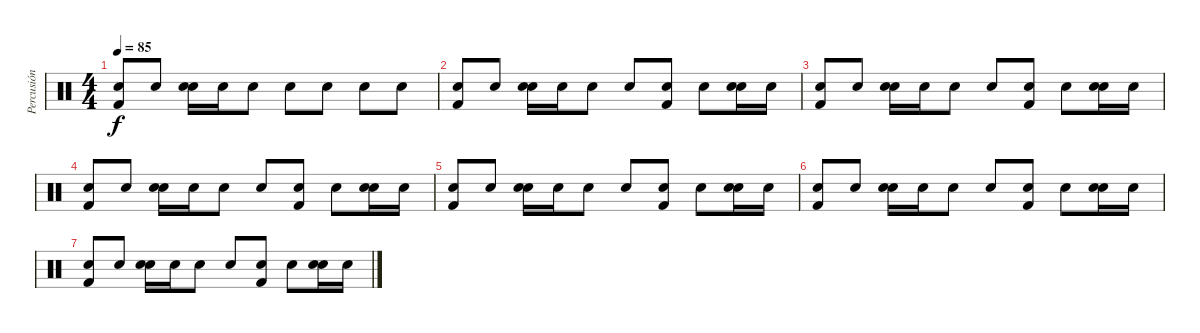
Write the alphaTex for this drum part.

\track ("Percusión" "Percusión") {instrument percussion}
\staff {score}
\articulation defaults
\ts (4 4)
\tempo 85
\clef neutral
\ks c
("Snare (hit)"{x} "Kick (hit) 2").8{dy f} "Snare (hit)"{x}.8 ("Snare (hit)"{x} "Snare (hit) 2").16 "Snare (hit) 2".16 "Snare (hit)"{x}.8 "Snare (hit)"{x}.8 "Snare (hit)"{x}.8 "Snare (hit)"{x}.8 "Snare (hit)"{x}.8 |
("Snare (hit)"{x} "Kick (hit) 2").8 "Snare (hit)"{x}.8 ("Snare (hit)"{x} "Snare (hit) 2").16 "Snare (hit) 2".16 "Snare (hit)"{x}.8 "Snare (hit)"{x}.8 ("Snare (hit)"{x} "Kick (hit) 2").8 "Snare (hit)"{x}.8 ("Snare (hit)"{x} "Snare (hit) 2").16 "Snare (hit) 2".16 |
("Snare (hit)"{x} "Kick (hit) 2").8 "Snare (hit)"{x}.8 ("Snare (hit)"{x} "Snare (hit) 2").16 "Snare (hit) 2".16 "Snare (hit)"{x}.8 "Snare (hit)"{x}.8 ("Snare (hit)"{x} "Kick (hit) 2").8 "Snare (hit)"{x}.8 ("Snare (hit)"{x} "Snare (hit) 2").16 "Snare (hit) 2".16 |
("Snare (hit)"{x} "Kick (hit) 2").8 "Snare (hit)"{x}.8 ("Snare (hit)"{x} "Snare (hit) 2").16 "Snare (hit) 2".16 "Snare (hit)"{x}.8 "Snare (hit)"{x}.8 ("Snare (hit)"{x} "Kick (hit) 2").8 "Snare (hit)"{x}.8 ("Snare (hit)"{x} "Snare (hit) 2").16 "Snare (hit) 2".16 |
("Snare (hit)"{x} "Kick (hit) 2").8 "Snare (hit)"{x}.8 ("Snare (hit)"{x} "Snare (hit) 2").16 "Snare (hit) 2".16 "Snare (hit)"{x}.8 "Snare (hit)"{x}.8 ("Snare (hit)"{x} "Kick (hit) 2").8 "Snare (hit)"{x}.8 ("Snare (hit)"{x} "Snare (hit) 2").16 "Snare (hit) 2".16 |
("Snare (hit)"{x} "Kick (hit) 2").8 "Snare (hit)"{x}.8 ("Snare (hit)"{x} "Snare (hit) 2").16 "Snare (hit) 2".16 "Snare (hit)"{x}.8 "Snare (hit)"{x}.8 ("Snare (hit)"{x} "Kick (hit) 2").8 "Snare (hit)"{x}.8 ("Snare (hit)"{x} "Snare (hit) 2").16 "Snare (hit) 2".16 |
("Snare (hit)"{x} "Kick (hit) 2").8 "Snare (hit)"{x}.8 ("Snare (hit)"{x} "Snare (hit) 2").16 "Snare (hit) 2".16 "Snare (hit)"{x}.8 "Snare (hit)"{x}.8 ("Snare (hit)"{x} "Kick (hit) 2").8 "Snare (hit)"{x}.8 ("Snare (hit)"{x} "Snare (hit) 2").16 "Snare (hit) 2".16
